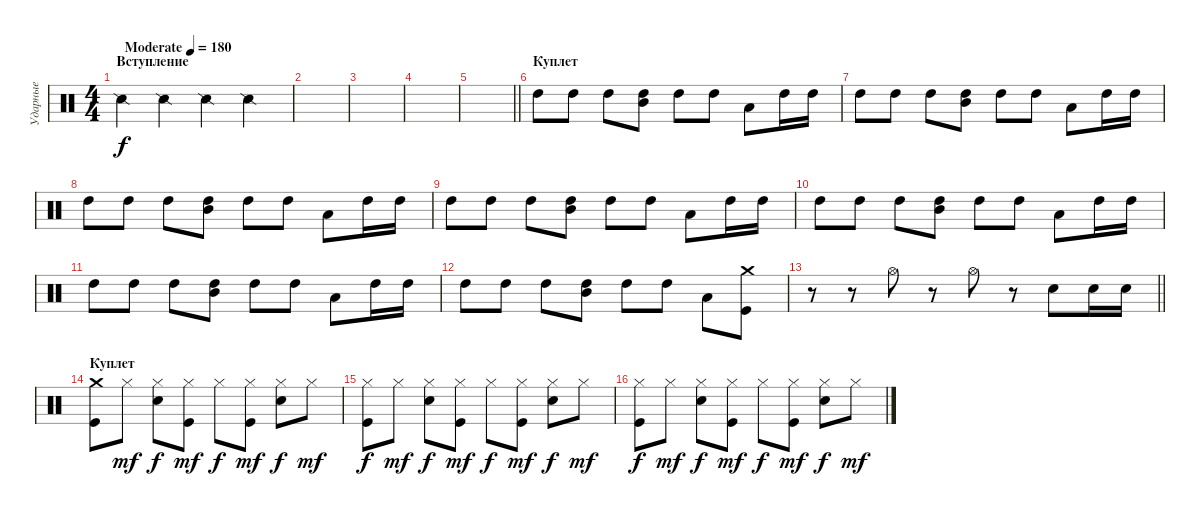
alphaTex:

\track ("Ударные" "Ударные") {instrument percussion}
\staff {score}
\articulation defaults
\ts (4 4)
\section ("" "Вступление")
\tempo (180 "Moderate")
\clef neutral
\ks c "Snare (side stick) 2".4{dy f} "Snare (side stick) 2".4 "Snare (side stick) 2".4 "Snare (side stick) 2".4
|
|
|
|
\barLineRight lightlight
|
\section ("" "Куплет")
"High Tom (hit)".8 "High Tom (hit)".8 "High Tom (hit)".8 ("Mid Tom (hit)" "High Tom (hit)").8 "High Tom (hit)".8 "High Tom (hit)".8 "Low Tom (hit)".8 "High Tom (hit)".16 "High Tom (hit)".16 |
"High Tom (hit)".8 "High Tom (hit)".8 "High Tom (hit)".8 ("Mid Tom (hit)" "High Tom (hit)").8 "High Tom (hit)".8 "High Tom (hit)".8 "Low Tom (hit)".8 "High Tom (hit)".16 "High Tom (hit)".16 |
"High Tom (hit)".8 "High Tom (hit)".8 "High Tom (hit)".8 ("Mid Tom (hit)" "High Tom (hit)").8 "High Tom (hit)".8 "High Tom (hit)".8 "Low Tom (hit)".8 "High Tom (hit)".16 "High Tom (hit)".16 |
"High Tom (hit)".8 "High Tom (hit)".8 "High Tom (hit)".8 ("Mid Tom (hit)" "High Tom (hit)").8 "High Tom (hit)".8 "High Tom (hit)".8 "Low Tom (hit)".8 "High Tom (hit)".16 "High Tom (hit)".16 |
"High Tom (hit)".8 "High Tom (hit)".8 "High Tom (hit)".8 ("Mid Tom (hit)" "High Tom (hit)").8 "High Tom (hit)".8 "High Tom (hit)".8 "Low Tom (hit)".8 "High Tom (hit)".16 "High Tom (hit)".16 |
"High Tom (hit)".8 "High Tom (hit)".8 "High Tom (hit)".8 ("Mid Tom (hit)" "High Tom (hit)").8 "High Tom (hit)".8 "High Tom (hit)".8 "Low Tom (hit)".8 "High Tom (hit)".16 "High Tom (hit)".16 |
"High Tom (hit)".8 "High Tom (hit)".8 "High Tom (hit)".8 ("Mid Tom (hit)" "High Tom (hit)").8 "High Tom (hit)".8 "High Tom (hit)".8 "Low Tom (hit)".8 ("Crash medium (hit)" "Kick (hit)").8 |
\barLineRight lightlight
r.8 r.8 "Hi-Hat (open)".8 r.8 "Hi-Hat (open)".8 r.8 "Electric Snare (hit)".8 "Electric Snare (hit)".16 "Electric Snare (hit)".16 |
\section ("" "Куплет")
("Crash medium (hit)" "Kick (hit)").8 "Hi-Hat (closed)".8{dy mf} ("Hi-Hat (closed)" "Electric Snare (hit)").8{dy f} ("Hi-Hat (closed)" "Kick (hit)").8{dy mf} "Hi-Hat (closed)".8{dy f} ("Hi-Hat (closed)" "Kick (hit)").8{dy mf} ("Hi-Hat (closed)" "Electric Snare (hit)").8{dy f} "Hi-Hat (closed)".8{dy mf} |
("Hi-Hat (closed)" "Kick (hit)").8{dy f} "Hi-Hat (closed)".8{dy mf} ("Hi-Hat (closed)" "Electric Snare (hit)").8{dy f} ("Hi-Hat (closed)" "Kick (hit)").8{dy mf} "Hi-Hat (closed)".8{dy f} ("Hi-Hat (closed)" "Kick (hit)").8{dy mf} ("Hi-Hat (closed)" "Electric Snare (hit)").8{dy f} "Hi-Hat (closed)".8{dy mf} |
("Hi-Hat (closed)" "Kick (hit)").8{dy f} "Hi-Hat (closed)".8{dy mf} ("Hi-Hat (closed)" "Electric Snare (hit)").8{dy f} ("Hi-Hat (closed)" "Kick (hit)").8{dy mf} "Hi-Hat (closed)".8{dy f} ("Hi-Hat (closed)" "Kick (hit)").8{dy mf} ("Hi-Hat (closed)" "Electric Snare (hit)").8{dy f} "Hi-Hat (closed)".8{dy mf}
